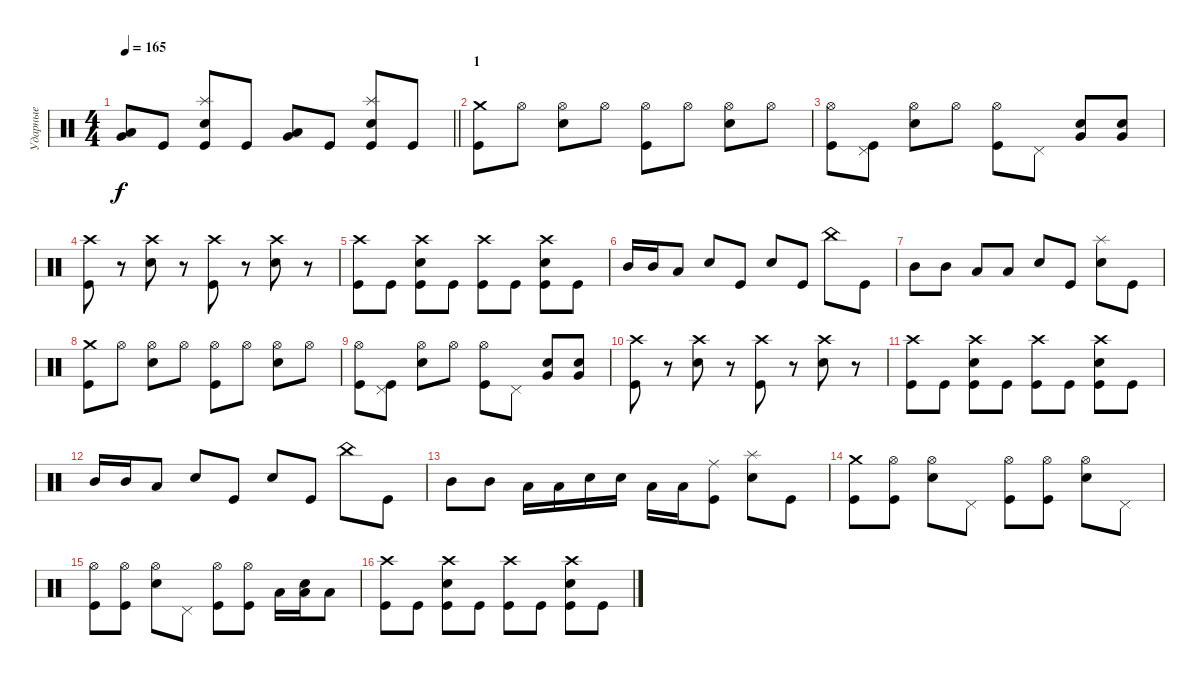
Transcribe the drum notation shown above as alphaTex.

\track ("Ударные" "Ударные") {instrument percussion}
\staff {score}
\articulation defaults
\ts (4 4)
\tempo 165
\clef neutral
\barLineRight lightlight
\ks c
("Low Tom (hit)" "Very Low Tom (hit)").8{dy f} "Kick (hit)".8 ("Splash (hit)" "Electric Snare (hit)" "Kick (hit)").8 "Kick (hit)".8 ("Very Low Tom (hit)" "Low Floor Tom (hit)").8 "Kick (hit)".8 ("Splash (hit)" "Electric Snare (hit)" "Kick (hit)").8 "Kick (hit)".8 |
\section ("" "1")
("Crash medium (hit)" "Kick (hit)").8 "Hi-Hat (open)".8 ("Hi-Hat (open)" "Electric Snare (hit)").8 "Hi-Hat (open)".8 ("Hi-Hat (open)" "Kick (hit)").8 "Hi-Hat (open)".8 ("Hi-Hat (open)" "Electric Snare (hit)").8 "Hi-Hat (open)".8 |
("Hi-Hat (open)" "Kick (hit)").8 ("Pedal Hi-Hat (hit)" "Kick (hit)").8 ("Hi-Hat (open)" "Electric Snare (hit)").8 "Hi-Hat (open)".8 ("Hi-Hat (open)" "Kick (hit)").8 "Pedal Hi-Hat (hit)".8 ("Very Low Tom (hit)" "Electric Snare (hit)").8 ("Very Low Tom (hit)" "Electric Snare (hit)").8 |
("Crash high (hit)" "Kick (hit)").8 r.8 ("Crash high (hit)" "Electric Snare (hit)").8 r.8 ("Crash high (hit)" "Kick (hit)").8 r.8 ("Crash high (hit)" "Electric Snare (hit)").8 r.8 |
("Crash high (hit)" "Kick (hit)").8 "Kick (hit)".8 ("Crash high (hit)" "Electric Snare (hit)" "Kick (hit)").8 "Kick (hit)".8 ("Crash high (hit)" "Kick (hit)").8 "Kick (hit)".8 ("Crash high (hit)" "Electric Snare (hit)" "Kick (hit)").8 "Kick (hit)".8 |
"Mid Tom (hit)".16 "Mid Tom (hit)".16 "Low Tom (hit)".8 "Electric Snare (hit)".8 "Kick (hit)".8 "Electric Snare (hit)".8 "Kick (hit)".8 "China (hit)".8 "Kick (hit)".8 |
"Mid Tom (hit)".8 "Mid Tom (hit)".8 "Low Tom (hit)".8 "Low Tom (hit)".8 "Electric Snare (hit)".8 "Kick (hit)".8 ("Splash (hit)" "Electric Snare (hit)").8 "Kick (hit)".8 |
("Crash medium (hit)" "Kick (hit)").8 "Hi-Hat (open)".8 ("Hi-Hat (open)" "Electric Snare (hit)").8 "Hi-Hat (open)".8 ("Hi-Hat (open)" "Kick (hit)").8 "Hi-Hat (open)".8 ("Hi-Hat (open)" "Electric Snare (hit)").8 "Hi-Hat (open)".8 |
("Hi-Hat (open)" "Kick (hit)").8 ("Pedal Hi-Hat (hit)" "Kick (hit)").8 ("Hi-Hat (open)" "Electric Snare (hit)").8 "Hi-Hat (open)".8 ("Hi-Hat (open)" "Kick (hit)").8 "Pedal Hi-Hat (hit)".8 ("Very Low Tom (hit)" "Electric Snare (hit)").8 ("Very Low Tom (hit)" "Electric Snare (hit)").8 |
("Crash high (hit)" "Kick (hit)").8 r.8 ("Crash high (hit)" "Electric Snare (hit)").8 r.8 ("Crash high (hit)" "Kick (hit)").8 r.8 ("Crash high (hit)" "Electric Snare (hit)").8 r.8 |
("Crash high (hit)" "Kick (hit)").8 "Kick (hit)".8 ("Crash high (hit)" "Electric Snare (hit)" "Kick (hit)").8 "Kick (hit)".8 ("Crash high (hit)" "Kick (hit)").8 "Kick (hit)".8 ("Crash high (hit)" "Electric Snare (hit)" "Kick (hit)").8 "Kick (hit)".8 |
"Mid Tom (hit)".16 "Mid Tom (hit)".16 "Low Tom (hit)".8 "Electric Snare (hit)".8 "Kick (hit)".8 "Electric Snare (hit)".8 "Kick (hit)".8 "China (hit)".8 "Kick (hit)".8 |
"Mid Tom (hit)".8 "Mid Tom (hit)".8 "Low Tom (hit)".16 "Low Tom (hit)".16 "Electric Snare (hit)".16 "Electric Snare (hit)".16 "Low Tom (hit)".16 "Low Tom (hit)".16 ("Ride (middle)" "Kick (hit)").8 ("Splash (hit)" "Electric Snare (hit)").8 "Kick (hit)".8 |
("Crash medium (hit)" "Kick (hit)").8 ("Hi-Hat (open)" "Kick (hit)").8 ("Hi-Hat (open)" "Electric Snare (hit)").8 "Pedal Hi-Hat (hit)".8 ("Hi-Hat (open)" "Kick (hit)").8 ("Hi-Hat (open)" "Kick (hit)").8 ("Hi-Hat (open)" "Electric Snare (hit)").8 "Pedal Hi-Hat (hit)".8 |
("Hi-Hat (open)" "Kick (hit)").8 ("Hi-Hat (open)" "Kick (hit)").8 ("Hi-Hat (open)" "Electric Snare (hit)").8 "Pedal Hi-Hat (hit)".8 ("Hi-Hat (open)" "Kick (hit)").8 ("Hi-Hat (open)" "Kick (hit)").8 "Low Tom (hit)".16 ("Low Tom (hit)" "Electric Snare (hit)").16 "Low Tom (hit)".8 |
("Crash high (hit)" "Kick (hit)").8 "Kick (hit)".8 ("Crash high (hit)" "Electric Snare (hit)" "Kick (hit)").8 "Kick (hit)".8 ("Crash high (hit)" "Kick (hit)").8 "Kick (hit)".8 ("Crash high (hit)" "Electric Snare (hit)" "Kick (hit)").8 "Kick (hit)".8
